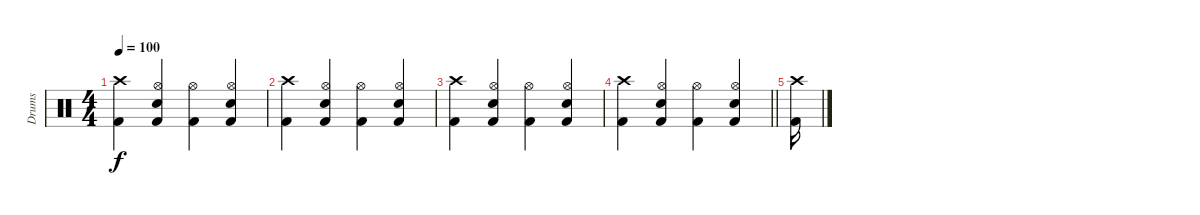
\track ("Drums" "Drums") {instrument percussion}
\staff {score}
\articulation defaults
\ts (4 4)
\tempo 100
\clef neutral
\ks c
("Crash high (hit)" "Kick (hit) 2").4{dy f} ("Hi-Hat (open)" "Snare (hit) 2" "Kick (hit) 2").4 ("Hi-Hat (open)" "Kick (hit) 2").4 ("Hi-Hat (open)" "Snare (hit) 2" "Kick (hit) 2").4 |
("Crash high (hit)" "Kick (hit) 2").4 ("Hi-Hat (open)" "Snare (hit) 2" "Kick (hit) 2").4 ("Hi-Hat (open)" "Kick (hit) 2").4 ("Hi-Hat (open)" "Snare (hit) 2" "Kick (hit) 2").4 |
("Crash high (hit)" "Kick (hit) 2").4 ("Hi-Hat (open)" "Snare (hit) 2" "Kick (hit) 2").4 ("Hi-Hat (open)" "Kick (hit) 2").4 ("Hi-Hat (open)" "Snare (hit) 2" "Kick (hit) 2").4 |
\barLineRight lightlight
("Crash high (hit)" "Kick (hit) 2").4 ("Hi-Hat (open)" "Snare (hit) 2" "Kick (hit) 2").4 ("Hi-Hat (open)" "Kick (hit) 2").4 ("Hi-Hat (open)" "Snare (hit) 2" "Kick (hit) 2").4 |
("Crash high (hit)" "Kick (hit) 2").16
